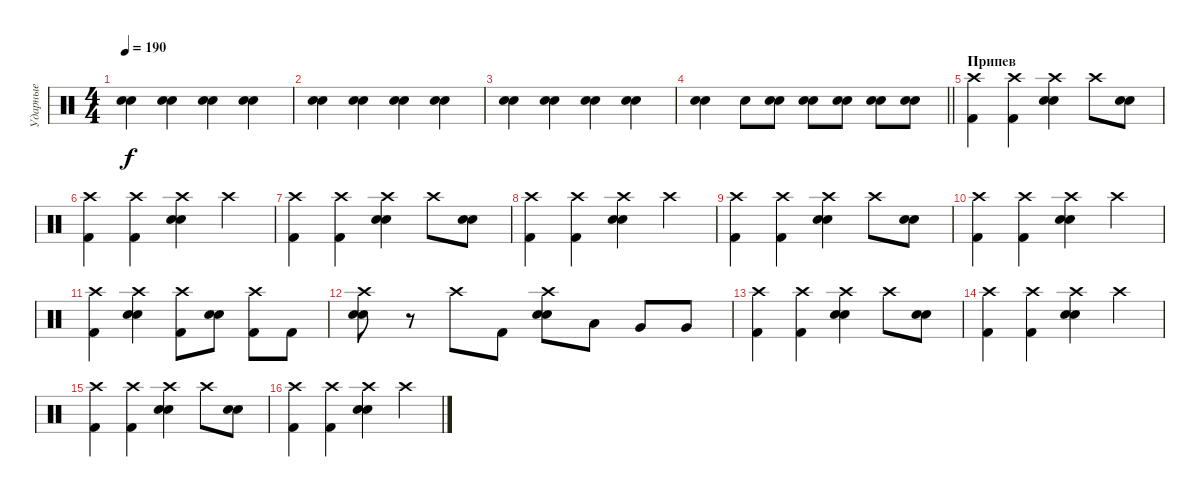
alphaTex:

\track ("Ударные" "Ударные") {instrument percussion}
\staff {score}
\articulation defaults
\ts (4 4)
\tempo 190
\clef neutral
\ks c
("Electric Snare (hit)" "Snare (hit) 2").4{dy f volume 13} ("Electric Snare (hit)" "Snare (hit) 2").4 ("Electric Snare (hit)" "Snare (hit) 2").4 ("Electric Snare (hit)" "Snare (hit) 2").4 |
("Electric Snare (hit)" "Snare (hit) 2").4 ("Electric Snare (hit)" "Snare (hit) 2").4 ("Electric Snare (hit)" "Snare (hit) 2").4 ("Electric Snare (hit)" "Snare (hit) 2").4 |
("Electric Snare (hit)" "Snare (hit) 2").4 ("Electric Snare (hit)" "Snare (hit) 2").4 ("Electric Snare (hit)" "Snare (hit) 2").4 ("Electric Snare (hit)" "Snare (hit) 2").4 |
\barLineRight lightlight
("Electric Snare (hit)" "Snare (hit) 2").4 "Electric Snare (hit)".8 ("Electric Snare (hit)" "Snare (hit) 2").8 ("Electric Snare (hit)" "Snare (hit) 2").8 ("Electric Snare (hit)" "Snare (hit) 2").8 ("Electric Snare (hit)" "Snare (hit) 2").8 ("Electric Snare (hit)" "Snare (hit) 2").8 |
\section ("" "Припев")
("Crash high (hit)" "Kick (hit) 2").4 ("Crash high (hit)" "Kick (hit) 2").4 ("Crash high (hit)" "Electric Snare (hit)" "Snare (hit) 2").4 "Crash high (hit)".8 ("Electric Snare (hit)" "Snare (hit) 2").8 |
("Crash high (hit)" "Kick (hit) 2").4 ("Crash high (hit)" "Kick (hit) 2").4 ("Crash high (hit)" "Electric Snare (hit)" "Snare (hit) 2").4 "Crash high (hit)".4 |
("Crash high (hit)" "Kick (hit) 2").4 ("Crash high (hit)" "Kick (hit) 2").4 ("Crash high (hit)" "Electric Snare (hit)" "Snare (hit) 2").4 "Crash high (hit)".8 ("Electric Snare (hit)" "Snare (hit) 2").8 |
("Crash high (hit)" "Kick (hit) 2").4 ("Crash high (hit)" "Kick (hit) 2").4 ("Crash high (hit)" "Electric Snare (hit)" "Snare (hit) 2").4 "Crash high (hit)".4 |
("Crash high (hit)" "Kick (hit) 2").4 ("Crash high (hit)" "Kick (hit) 2").4 ("Crash high (hit)" "Electric Snare (hit)" "Snare (hit) 2").4 "Crash high (hit)".8 ("Electric Snare (hit)" "Snare (hit) 2").8 |
("Crash high (hit)" "Kick (hit) 2").4 ("Crash high (hit)" "Kick (hit) 2").4 ("Crash high (hit)" "Electric Snare (hit)" "Snare (hit) 2").4 "Crash high (hit)".4 |
("Crash high (hit)" "Kick (hit) 2").4 ("Crash high (hit)" "Electric Snare (hit)" "Snare (hit) 2").4 ("Crash high (hit)" "Kick (hit) 2").8 ("Electric Snare (hit)" "Snare (hit) 2").8 ("Crash high (hit)" "Kick (hit) 2").8 "Kick (hit) 2".8 |
("Crash high (hit)" "Electric Snare (hit)" "Snare (hit) 2").8 r.8 "Crash high (hit)".8 "Kick (hit) 2".8 ("Crash high (hit)" "Electric Snare (hit)" "Snare (hit) 2").8 "Low Tom (hit)".8 "Very Low Tom (hit)".8 "Very Low Tom (hit)".8 |
("Crash high (hit)" "Kick (hit) 2").4 ("Crash high (hit)" "Kick (hit) 2").4 ("Crash high (hit)" "Electric Snare (hit)" "Snare (hit) 2").4 "Crash high (hit)".8 ("Electric Snare (hit)" "Snare (hit) 2").8 |
("Crash high (hit)" "Kick (hit) 2").4 ("Crash high (hit)" "Kick (hit) 2").4 ("Crash high (hit)" "Electric Snare (hit)" "Snare (hit) 2").4 "Crash high (hit)".4 |
("Crash high (hit)" "Kick (hit) 2").4 ("Crash high (hit)" "Kick (hit) 2").4 ("Crash high (hit)" "Electric Snare (hit)" "Snare (hit) 2").4 "Crash high (hit)".8 ("Electric Snare (hit)" "Snare (hit) 2").8 |
("Crash high (hit)" "Kick (hit) 2").4 ("Crash high (hit)" "Kick (hit) 2").4 ("Crash high (hit)" "Electric Snare (hit)" "Snare (hit) 2").4 "Crash high (hit)".4
